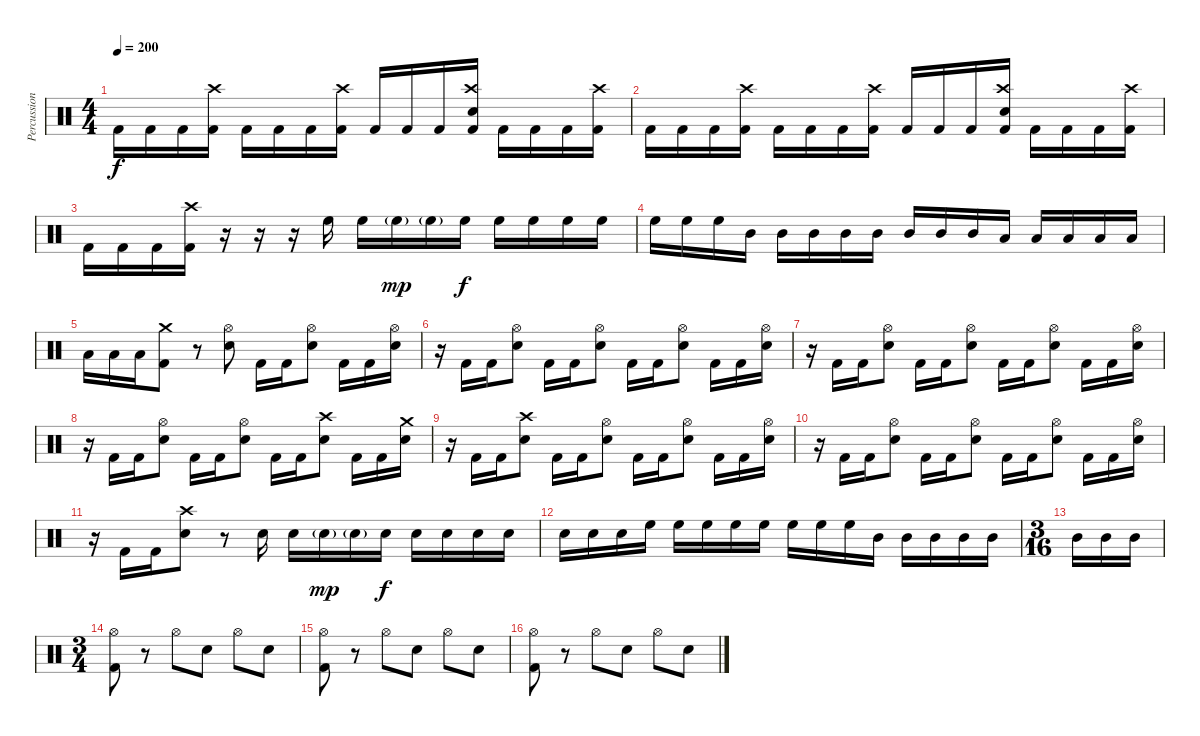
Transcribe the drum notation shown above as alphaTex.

\track ("Percussion" "Percussion") {instrument percussion}
\staff {score}
\articulation defaults
\ts (4 4)
\tempo 200
\clef neutral
\ks c "Kick (hit) 2".16{dy f} "Kick (hit) 2".16 "Kick (hit) 2".16
("Crash high (hit)" "Kick (hit) 2").16 "Kick (hit) 2".16 "Kick (hit) 2".16 "Kick (hit) 2".16 ("Crash high (hit)" "Kick (hit) 2").16 "Kick (hit) 2".16 "Kick (hit) 2".16 "Kick (hit) 2".16 ("Crash high (hit)" "Snare (hit) 2" "Kick (hit) 2").16 "Kick (hit) 2".16 "Kick (hit) 2".16 "Kick (hit) 2".16 ("Crash high (hit)" "Kick (hit) 2").16 |
"Kick (hit) 2".16 "Kick (hit) 2".16 "Kick (hit) 2".16 ("Crash high (hit)" "Kick (hit) 2").16 "Kick (hit) 2".16 "Kick (hit) 2".16 "Kick (hit) 2".16 ("Crash high (hit)" "Kick (hit) 2").16 "Kick (hit) 2".16 "Kick (hit) 2".16 "Kick (hit) 2".16 ("Crash high (hit)" "Snare (hit) 2" "Kick (hit) 2").16 "Kick (hit) 2".16 "Kick (hit) 2".16 "Kick (hit) 2".16 ("Crash high (hit)" "Kick (hit) 2").16 |
"Kick (hit) 2".16 "Kick (hit) 2".16 "Kick (hit) 2".16 ("Crash high (hit)" "Kick (hit) 2").16 r.16 r.16 r.16 "High Floor Tom (hit)".16 "High Floor Tom (hit)".16 "High Floor Tom (hit)"{g}.16{dy mp} "High Floor Tom (hit)"{g}.16 "High Floor Tom (hit)".16{dy f} "High Floor Tom (hit)".16 "High Floor Tom (hit)".16 "High Floor Tom (hit)".16 "High Floor Tom (hit)".16 |
"High Floor Tom (hit)".16 "High Floor Tom (hit)".16 "High Floor Tom (hit)".16 "Mid Tom (hit)".16 "Mid Tom (hit)".16 "Mid Tom (hit)".16 "Mid Tom (hit)".16 "Mid Tom (hit)".16 "Mid Tom (hit)".16 "Mid Tom (hit)".16 "Mid Tom (hit)".16 "Low Tom (hit)".16 "Low Tom (hit)".16 "Low Tom (hit)".16 "Low Tom (hit)".16 "Low Tom (hit)".16 |
"Low Tom (hit)".16 "Low Tom (hit)".16 "Low Tom (hit)".16 ("Crash medium (hit)" "Kick (hit) 2").8 r.8 ("Hi-Hat (open)" "Snare (hit) 2").8 "Kick (hit) 2".16 "Kick (hit) 2".16 ("Hi-Hat (open)" "Snare (hit) 2").8 "Kick (hit) 2".16 "Kick (hit) 2".16 ("Hi-Hat (open)" "Snare (hit) 2").16 |
r.16 "Kick (hit) 2".16 "Kick (hit) 2".16 ("Hi-Hat (open)" "Snare (hit) 2").8 "Kick (hit) 2".16 "Kick (hit) 2".16 ("Hi-Hat (open)" "Snare (hit) 2").8 "Kick (hit) 2".16 "Kick (hit) 2".16 ("Hi-Hat (open)" "Snare (hit) 2").8 "Kick (hit) 2".16 "Kick (hit) 2".16 ("Hi-Hat (open)" "Snare (hit) 2").16 |
r.16 "Kick (hit) 2".16 "Kick (hit) 2".16 ("Hi-Hat (open)" "Snare (hit) 2").8 "Kick (hit) 2".16 "Kick (hit) 2".16 ("Hi-Hat (open)" "Snare (hit) 2").8 "Kick (hit) 2".16 "Kick (hit) 2".16 ("Hi-Hat (open)" "Snare (hit) 2").8 "Kick (hit) 2".16 "Kick (hit) 2".16 ("Hi-Hat (open)" "Snare (hit) 2").16 |
r.16 "Kick (hit) 2".16 "Kick (hit) 2".16 ("Hi-Hat (open)" "Snare (hit) 2").8 "Kick (hit) 2".16 "Kick (hit) 2".16 ("Hi-Hat (open)" "Snare (hit) 2").8 "Kick (hit) 2".16 "Kick (hit) 2".16 ("Crash high (hit)" "Snare (hit) 2").8 "Kick (hit) 2".16 "Kick (hit) 2".16 ("Crash medium (hit)" "Snare (hit) 2").16 |
r.16 "Kick (hit) 2".16 "Kick (hit) 2".16 ("Crash high (hit)" "Snare (hit) 2").8 "Kick (hit) 2".16 "Kick (hit) 2".16 ("Hi-Hat (open)" "Snare (hit) 2").8 "Kick (hit) 2".16 "Kick (hit) 2".16 ("Hi-Hat (open)" "Snare (hit) 2").8 "Kick (hit) 2".16 "Kick (hit) 2".16 ("Hi-Hat (open)" "Snare (hit) 2").16 |
r.16 "Kick (hit) 2".16 "Kick (hit) 2".16 ("Hi-Hat (open)" "Snare (hit) 2").8 "Kick (hit) 2".16 "Kick (hit) 2".16 ("Hi-Hat (open)" "Snare (hit) 2").8 "Kick (hit) 2".16 "Kick (hit) 2".16 ("Hi-Hat (open)" "Snare (hit) 2").8 "Kick (hit) 2".16 "Kick (hit) 2".16 ("Hi-Hat (open)" "Snare (hit) 2").16 |
r.16 "Kick (hit) 2".16 "Kick (hit) 2".16 ("Crash high (hit)" "Snare (hit) 2").8 r.8 "Snare (hit) 2".16 "Snare (hit) 2".16 "Snare (hit) 2"{g}.16{dy mp} "Snare (hit) 2"{g}.16 "Snare (hit) 2".16{dy f} "Snare (hit) 2".16 "Snare (hit) 2".16 "Snare (hit) 2".16 "Snare (hit) 2".16 |
"Snare (hit) 2".16 "Snare (hit) 2".16 "Snare (hit) 2".16 "High Floor Tom (hit)".16 "High Floor Tom (hit)".16 "High Floor Tom (hit)".16 "High Floor Tom (hit)".16 "High Floor Tom (hit)".16 "High Floor Tom (hit)".16 "High Floor Tom (hit)".16 "High Floor Tom (hit)".16 "Mid Tom (hit)".16 "Mid Tom (hit)".16 "Mid Tom (hit)".16 "Mid Tom (hit)".16 "Mid Tom (hit)".16 |
\ts (3 16)
"Mid Tom (hit)".16 "Mid Tom (hit)".16 "Mid Tom (hit)".16 |
\ts (3 4)
("Hi-Hat (open)" "Kick (hit) 2").8 r.8 "Hi-Hat (open)".8 "Snare (hit) 2".8 "Hi-Hat (open)".8 "Snare (hit) 2".8 |
("Hi-Hat (open)" "Kick (hit) 2").8 r.8 "Hi-Hat (open)".8 "Snare (hit) 2".8 "Hi-Hat (open)".8 "Snare (hit) 2".8 |
("Hi-Hat (open)" "Kick (hit) 2").8 r.8 "Hi-Hat (open)".8 "Snare (hit) 2".8 "Hi-Hat (open)".8 "Snare (hit) 2".8
